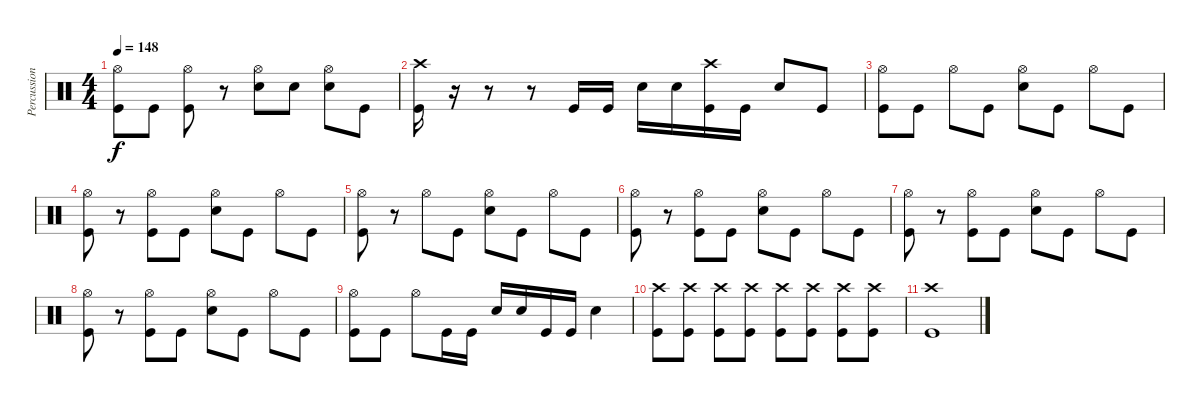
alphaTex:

\track ("Percussion" "Percussion") {instrument percussion}
\staff {score}
\articulation defaults
\ts (4 4)
\tempo 148
\clef neutral
\ks c
("Hi-Hat (open)" "Kick (hit)").8{dy f} "Kick (hit)".8 ("Hi-Hat (open)" "Kick (hit)").8 r.8 ("Hi-Hat (open)" "Electric Snare (hit)").8 "Electric Snare (hit)".8 ("Hi-Hat (open)" "Electric Snare (hit)").8 "Kick (hit)".8 |
("Crash high (hit)" "Kick (hit)").16 r.16 r.8 r.8 "Kick (hit)".16 "Kick (hit)".16 "Electric Snare (hit)".16 "Electric Snare (hit)".16 ("Crash high (hit)" "Kick (hit)").16 "Kick (hit)".16 "Electric Snare (hit)".8 "Kick (hit)".8 |
("Hi-Hat (open)" "Kick (hit)").8 "Kick (hit)".8 "Hi-Hat (open)".8 "Kick (hit)".8 ("Hi-Hat (open)" "Electric Snare (hit)").8 "Kick (hit)".8 "Hi-Hat (open)".8 "Kick (hit)".8 |
("Hi-Hat (open)" "Kick (hit)").8 r.8 ("Hi-Hat (open)" "Kick (hit)").8 "Kick (hit)".8 ("Hi-Hat (open)" "Electric Snare (hit)").8 "Kick (hit)".8 "Hi-Hat (open)".8 "Kick (hit)".8 |
("Hi-Hat (open)" "Kick (hit)").8 r.8 "Hi-Hat (open)".8 "Kick (hit)".8 ("Hi-Hat (open)" "Electric Snare (hit)").8 "Kick (hit)".8 "Hi-Hat (open)".8 "Kick (hit)".8 |
("Hi-Hat (open)" "Kick (hit)").8 r.8 ("Hi-Hat (open)" "Kick (hit)").8 "Kick (hit)".8 ("Hi-Hat (open)" "Electric Snare (hit)").8 "Kick (hit)".8 "Hi-Hat (open)".8 "Kick (hit)".8 |
("Hi-Hat (open)" "Kick (hit)").8 r.8 ("Hi-Hat (open)" "Kick (hit)").8 "Kick (hit)".8 ("Hi-Hat (open)" "Electric Snare (hit)").8 "Kick (hit)".8 "Hi-Hat (open)".8 "Kick (hit)".8 |
("Hi-Hat (open)" "Kick (hit)").8 r.8 ("Hi-Hat (open)" "Kick (hit)").8 "Kick (hit)".8 ("Hi-Hat (open)" "Electric Snare (hit)").8 "Kick (hit)".8 "Hi-Hat (open)".8 "Kick (hit)".8 |
("Hi-Hat (open)" "Kick (hit)").8 "Kick (hit)".8 "Hi-Hat (open)".8 "Kick (hit)".16 "Kick (hit)".16 "Electric Snare (hit)".16 "Electric Snare (hit)".16 "Kick (hit)".16 "Kick (hit)".16 "Electric Snare (hit)".4 |
("Crash high (hit)" "Kick (hit)").8 ("Crash high (hit)" "Kick (hit)").8 ("Crash high (hit)" "Kick (hit)").8 ("Crash high (hit)" "Kick (hit)").8 ("Crash high (hit)" "Kick (hit)").8 ("Crash high (hit)" "Kick (hit)").8 ("Crash high (hit)" "Kick (hit)").8 ("Crash high (hit)" "Kick (hit)").8 |
("Crash high (hit)" "Kick (hit)").1
